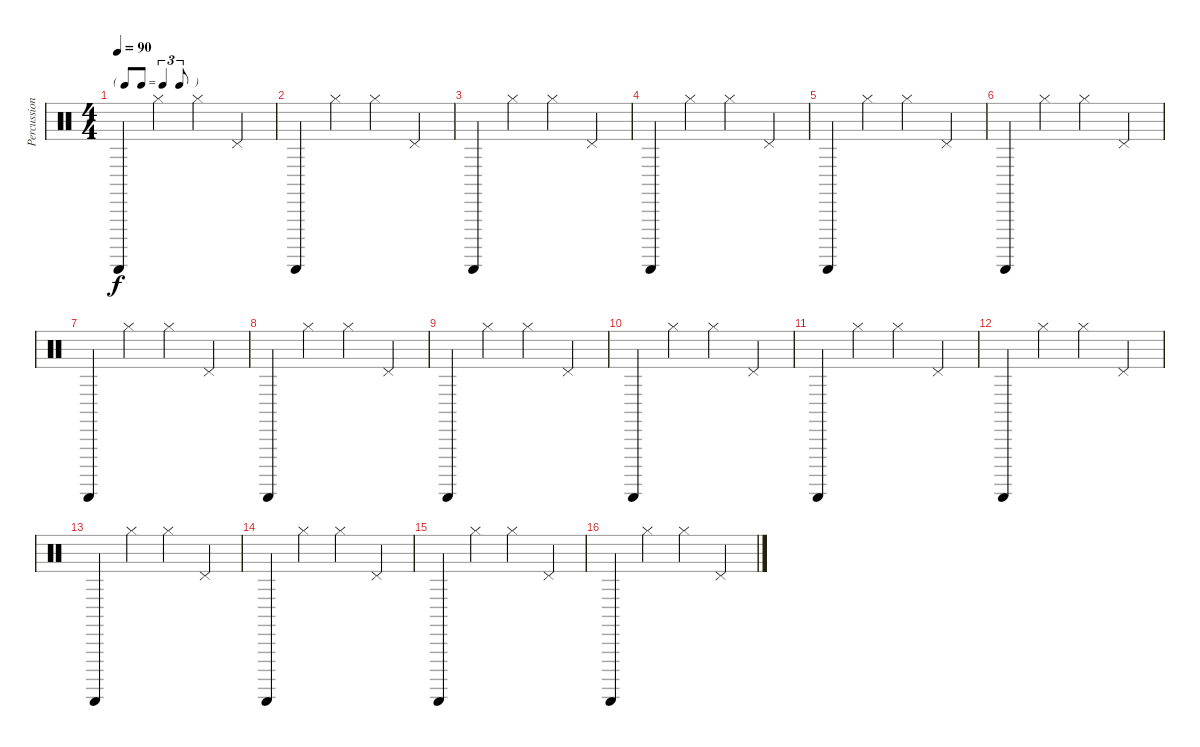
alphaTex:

\track ("Percussion" "Percussion") {instrument percussion}
\staff {score}
\articulation defaults
\ts (4 4)
\tf triplet8th
\tempo 90
\clef neutral
\ks c "Guiro (scrap-return)".4{dy f} "Hi-Hat (closed)".4 "Hi-Hat (closed)".4 "Pedal Hi-Hat (hit)".4
|
"Guiro (scrap-return)".4 "Hi-Hat (closed)".4 "Hi-Hat (closed)".4 "Pedal Hi-Hat (hit)".4 |
"Guiro (scrap-return)".4 "Hi-Hat (closed)".4 "Hi-Hat (closed)".4 "Pedal Hi-Hat (hit)".4 |
"Guiro (scrap-return)".4 "Hi-Hat (closed)".4 "Hi-Hat (closed)".4 "Pedal Hi-Hat (hit)".4 |
"Guiro (scrap-return)".4 "Hi-Hat (closed)".4 "Hi-Hat (closed)".4 "Pedal Hi-Hat (hit)".4 |
"Guiro (scrap-return)".4 "Hi-Hat (closed)".4 "Hi-Hat (closed)".4 "Pedal Hi-Hat (hit)".4 |
"Guiro (scrap-return)".4 "Hi-Hat (closed)".4 "Hi-Hat (closed)".4 "Pedal Hi-Hat (hit)".4 |
"Guiro (scrap-return)".4 "Hi-Hat (closed)".4 "Hi-Hat (closed)".4 "Pedal Hi-Hat (hit)".4 |
"Guiro (scrap-return)".4 "Hi-Hat (closed)".4 "Hi-Hat (closed)".4 "Pedal Hi-Hat (hit)".4 |
"Guiro (scrap-return)".4 "Hi-Hat (closed)".4 "Hi-Hat (closed)".4 "Pedal Hi-Hat (hit)".4 |
"Guiro (scrap-return)".4 "Hi-Hat (closed)".4 "Hi-Hat (closed)".4 "Pedal Hi-Hat (hit)".4 |
"Guiro (scrap-return)".4 "Hi-Hat (closed)".4 "Hi-Hat (closed)".4 "Pedal Hi-Hat (hit)".4 |
"Guiro (scrap-return)".4 "Hi-Hat (closed)".4 "Hi-Hat (closed)".4 "Pedal Hi-Hat (hit)".4 |
"Guiro (scrap-return)".4 "Hi-Hat (closed)".4 "Hi-Hat (closed)".4 "Pedal Hi-Hat (hit)".4 |
"Guiro (scrap-return)".4 "Hi-Hat (closed)".4 "Hi-Hat (closed)".4 "Pedal Hi-Hat (hit)".4 |
"Guiro (scrap-return)".4 "Hi-Hat (closed)".4 "Hi-Hat (closed)".4 "Pedal Hi-Hat (hit)".4
